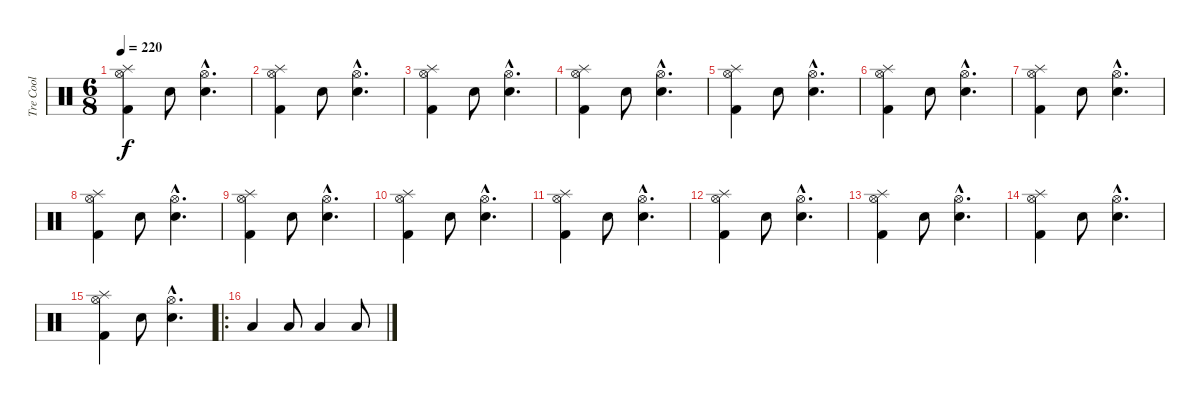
\track ("Tre Cool" "Tre Cool") {instrument percussion}
\staff {score}
\articulation defaults
\ts (6 8)
\tempo 220
\clef neutral
\ks c
("Hi-Hat (open)" "Splash (hit)" "Kick (hit) 2").4{dy f} "Snare (hit) 2".8 ("Electric Snare (hit)"{hac} "Hi-Hat (open)"{hac}).4{d} |
("Hi-Hat (open)" "Splash (hit)" "Kick (hit) 2").4 "Snare (hit) 2".8 ("Electric Snare (hit)"{hac} "Hi-Hat (open)"{hac}).4{d} |
("Hi-Hat (open)" "Splash (hit)" "Kick (hit) 2").4 "Snare (hit) 2".8 ("Electric Snare (hit)"{hac} "Hi-Hat (open)"{hac}).4{d} |
("Hi-Hat (open)" "Splash (hit)" "Kick (hit) 2").4 "Snare (hit) 2".8 ("Electric Snare (hit)"{hac} "Hi-Hat (open)"{hac}).4{d} |
("Hi-Hat (open)" "Splash (hit)" "Kick (hit) 2").4 "Snare (hit) 2".8 ("Electric Snare (hit)"{hac} "Hi-Hat (open)"{hac}).4{d} |
("Hi-Hat (open)" "Splash (hit)" "Kick (hit) 2").4 "Snare (hit) 2".8 ("Electric Snare (hit)"{hac} "Hi-Hat (open)"{hac}).4{d} |
("Hi-Hat (open)" "Splash (hit)" "Kick (hit) 2").4 "Snare (hit) 2".8 ("Electric Snare (hit)"{hac} "Hi-Hat (open)"{hac}).4{d} |
("Hi-Hat (open)" "Splash (hit)" "Kick (hit) 2").4 "Snare (hit) 2".8 ("Electric Snare (hit)"{hac} "Hi-Hat (open)"{hac}).4{d} |
("Hi-Hat (open)" "Splash (hit)" "Kick (hit) 2").4 "Snare (hit) 2".8 ("Electric Snare (hit)"{hac} "Hi-Hat (open)"{hac}).4{d} |
("Hi-Hat (open)" "Splash (hit)" "Kick (hit) 2").4 "Snare (hit) 2".8 ("Electric Snare (hit)"{hac} "Hi-Hat (open)"{hac}).4{d} |
("Hi-Hat (open)" "Splash (hit)" "Kick (hit) 2").4 "Snare (hit) 2".8 ("Electric Snare (hit)"{hac} "Hi-Hat (open)"{hac}).4{d} |
("Hi-Hat (open)" "Splash (hit)" "Kick (hit) 2").4 "Snare (hit) 2".8 ("Electric Snare (hit)"{hac} "Hi-Hat (open)"{hac}).4{d} |
("Hi-Hat (open)" "Splash (hit)" "Kick (hit) 2").4 "Snare (hit) 2".8 ("Electric Snare (hit)"{hac} "Hi-Hat (open)"{hac}).4{d} |
("Hi-Hat (open)" "Splash (hit)" "Kick (hit) 2").4 "Snare (hit) 2".8 ("Electric Snare (hit)"{hac} "Hi-Hat (open)"{hac}).4{d} |
("Hi-Hat (open)" "Splash (hit)" "Kick (hit) 2").4 "Snare (hit) 2".8 ("Electric Snare (hit)"{hac} "Hi-Hat (open)"{hac}).4{d} |
\ro "Low Floor Tom (hit)".4 "Low Floor Tom (hit)".8 "Low Tom (hit)".4 "Low Tom (hit)".8
